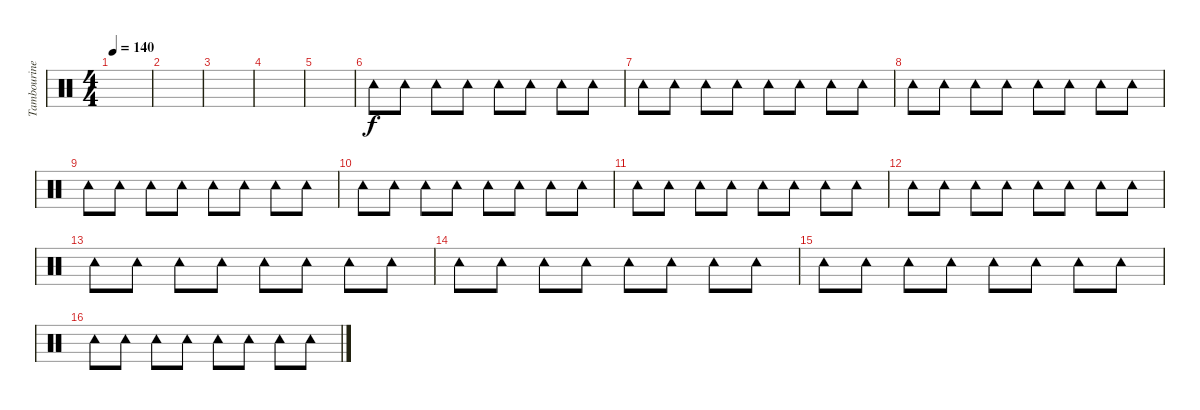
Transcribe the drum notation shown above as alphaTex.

\track ("Tambourine" "Tambourine") {instrument percussion}
\staff {score}
\articulation defaults
\ts (4 4)
\tempo 140
\clef neutral
\ks c
|
|
|
|
|
"Tambourine (hit)".8 "Tambourine (hit)".8 "Tambourine (hit)".8 "Tambourine (hit)".8 "Tambourine (hit)".8 "Tambourine (hit)".8 "Tambourine (hit)".8 "Tambourine (hit)".8 |
"Tambourine (hit)".8 "Tambourine (hit)".8 "Tambourine (hit)".8 "Tambourine (hit)".8 "Tambourine (hit)".8 "Tambourine (hit)".8 "Tambourine (hit)".8 "Tambourine (hit)".8 |
"Tambourine (hit)".8 "Tambourine (hit)".8 "Tambourine (hit)".8 "Tambourine (hit)".8 "Tambourine (hit)".8 "Tambourine (hit)".8 "Tambourine (hit)".8 "Tambourine (hit)".8 |
"Tambourine (hit)".8 "Tambourine (hit)".8 "Tambourine (hit)".8 "Tambourine (hit)".8 "Tambourine (hit)".8 "Tambourine (hit)".8 "Tambourine (hit)".8 "Tambourine (hit)".8 |
"Tambourine (hit)".8 "Tambourine (hit)".8 "Tambourine (hit)".8 "Tambourine (hit)".8 "Tambourine (hit)".8 "Tambourine (hit)".8 "Tambourine (hit)".8 "Tambourine (hit)".8 |
"Tambourine (hit)".8 "Tambourine (hit)".8 "Tambourine (hit)".8 "Tambourine (hit)".8 "Tambourine (hit)".8 "Tambourine (hit)".8 "Tambourine (hit)".8 "Tambourine (hit)".8 |
"Tambourine (hit)".8 "Tambourine (hit)".8 "Tambourine (hit)".8 "Tambourine (hit)".8 "Tambourine (hit)".8 "Tambourine (hit)".8 "Tambourine (hit)".8 "Tambourine (hit)".8 |
"Tambourine (hit)".8 "Tambourine (hit)".8 "Tambourine (hit)".8 "Tambourine (hit)".8 "Tambourine (hit)".8 "Tambourine (hit)".8 "Tambourine (hit)".8 "Tambourine (hit)".8 |
"Tambourine (hit)".8 "Tambourine (hit)".8 "Tambourine (hit)".8 "Tambourine (hit)".8 "Tambourine (hit)".8 "Tambourine (hit)".8 "Tambourine (hit)".8 "Tambourine (hit)".8 |
"Tambourine (hit)".8 "Tambourine (hit)".8 "Tambourine (hit)".8 "Tambourine (hit)".8 "Tambourine (hit)".8 "Tambourine (hit)".8 "Tambourine (hit)".8 "Tambourine (hit)".8 |
"Tambourine (hit)".8 "Tambourine (hit)".8 "Tambourine (hit)".8 "Tambourine (hit)".8 "Tambourine (hit)".8 "Tambourine (hit)".8 "Tambourine (hit)".8 "Tambourine (hit)".8
